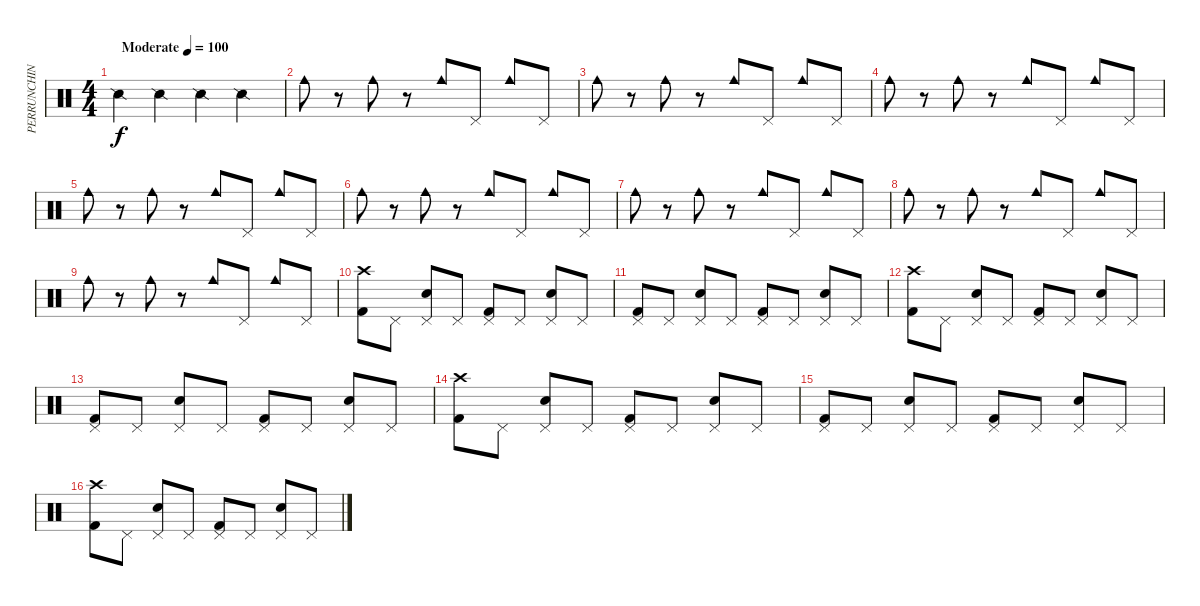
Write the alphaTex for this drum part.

\track ("PERRUNCHIN" "PERRUNCHIN") {instrument percussion}
\staff {score}
\articulation defaults
\ts (4 4)
\tempo (100 "Moderate")
\clef neutral
\ks c "Snare (side stick) 2".4{dy f} "Snare (side stick) 2".4 "Snare (side stick) 2".4 "Snare (side stick) 2".4
|
"Cowbell medium (hit)".8 r.8 "Cowbell medium (hit)".8 r.8 "Cowbell medium (hit)".8 "Pedal Hi-Hat (hit)".8 "Cowbell medium (hit)".8 "Pedal Hi-Hat (hit)".8 |
"Cowbell medium (hit)".8 r.8 "Cowbell medium (hit)".8 r.8 "Cowbell medium (hit)".8 "Pedal Hi-Hat (hit)".8 "Cowbell medium (hit)".8 "Pedal Hi-Hat (hit)".8 |
"Cowbell medium (hit)".8 r.8 "Cowbell medium (hit)".8 r.8 "Cowbell medium (hit)".8 "Pedal Hi-Hat (hit)".8 "Cowbell medium (hit)".8 "Pedal Hi-Hat (hit)".8 |
"Cowbell medium (hit)".8 r.8 "Cowbell medium (hit)".8 r.8 "Cowbell medium (hit)".8 "Pedal Hi-Hat (hit)".8 "Cowbell medium (hit)".8 "Pedal Hi-Hat (hit)".8 |
"Cowbell medium (hit)".8 r.8 "Cowbell medium (hit)".8 r.8 "Cowbell medium (hit)".8 "Pedal Hi-Hat (hit)".8 "Cowbell medium (hit)".8 "Pedal Hi-Hat (hit)".8 |
"Cowbell medium (hit)".8 r.8 "Cowbell medium (hit)".8 r.8 "Cowbell medium (hit)".8 "Pedal Hi-Hat (hit)".8 "Cowbell medium (hit)".8 "Pedal Hi-Hat (hit)".8 |
"Cowbell medium (hit)".8 r.8 "Cowbell medium (hit)".8 r.8 "Cowbell medium (hit)".8 "Pedal Hi-Hat (hit)".8 "Cowbell medium (hit)".8 "Pedal Hi-Hat (hit)".8 |
"Cowbell medium (hit)".8 r.8 "Cowbell medium (hit)".8 r.8 "Cowbell medium (hit)".8 "Pedal Hi-Hat (hit)".8 "Cowbell medium (hit)".8 "Pedal Hi-Hat (hit)".8 |
("Crash high (hit)" "Kick (hit) 2").8 "Pedal Hi-Hat (hit)".8 ("Pedal Hi-Hat (hit)" "Electric Snare (hit)").8 "Pedal Hi-Hat (hit)".8 ("Pedal Hi-Hat (hit)" "Kick (hit) 2").8 "Pedal Hi-Hat (hit)".8 ("Pedal Hi-Hat (hit)" "Electric Snare (hit)").8 "Pedal Hi-Hat (hit)".8 |
("Pedal Hi-Hat (hit)" "Kick (hit) 2").8 "Pedal Hi-Hat (hit)".8 ("Pedal Hi-Hat (hit)" "Electric Snare (hit)").8 "Pedal Hi-Hat (hit)".8 ("Pedal Hi-Hat (hit)" "Kick (hit) 2").8 "Pedal Hi-Hat (hit)".8 ("Pedal Hi-Hat (hit)" "Electric Snare (hit)").8 "Pedal Hi-Hat (hit)".8 |
("Crash high (hit)" "Kick (hit) 2").8 "Pedal Hi-Hat (hit)".8 ("Pedal Hi-Hat (hit)" "Electric Snare (hit)").8 "Pedal Hi-Hat (hit)".8 ("Pedal Hi-Hat (hit)" "Kick (hit) 2").8 "Pedal Hi-Hat (hit)".8 ("Pedal Hi-Hat (hit)" "Electric Snare (hit)").8 "Pedal Hi-Hat (hit)".8 |
("Pedal Hi-Hat (hit)" "Kick (hit) 2").8 "Pedal Hi-Hat (hit)".8 ("Pedal Hi-Hat (hit)" "Electric Snare (hit)").8 "Pedal Hi-Hat (hit)".8 ("Pedal Hi-Hat (hit)" "Kick (hit) 2").8 "Pedal Hi-Hat (hit)".8 ("Pedal Hi-Hat (hit)" "Electric Snare (hit)").8 "Pedal Hi-Hat (hit)".8 |
("Crash high (hit)" "Kick (hit) 2").8 "Pedal Hi-Hat (hit)".8 ("Pedal Hi-Hat (hit)" "Electric Snare (hit)").8 "Pedal Hi-Hat (hit)".8 ("Pedal Hi-Hat (hit)" "Kick (hit) 2").8 "Pedal Hi-Hat (hit)".8 ("Pedal Hi-Hat (hit)" "Electric Snare (hit)").8 "Pedal Hi-Hat (hit)".8 |
("Pedal Hi-Hat (hit)" "Kick (hit) 2").8 "Pedal Hi-Hat (hit)".8 ("Pedal Hi-Hat (hit)" "Electric Snare (hit)").8 "Pedal Hi-Hat (hit)".8 ("Pedal Hi-Hat (hit)" "Kick (hit) 2").8 "Pedal Hi-Hat (hit)".8 ("Pedal Hi-Hat (hit)" "Electric Snare (hit)").8 "Pedal Hi-Hat (hit)".8 |
("Crash high (hit)" "Kick (hit) 2").8 "Pedal Hi-Hat (hit)".8 ("Pedal Hi-Hat (hit)" "Electric Snare (hit)").8 "Pedal Hi-Hat (hit)".8 ("Pedal Hi-Hat (hit)" "Kick (hit) 2").8 "Pedal Hi-Hat (hit)".8 ("Pedal Hi-Hat (hit)" "Electric Snare (hit)").8 "Pedal Hi-Hat (hit)".8
